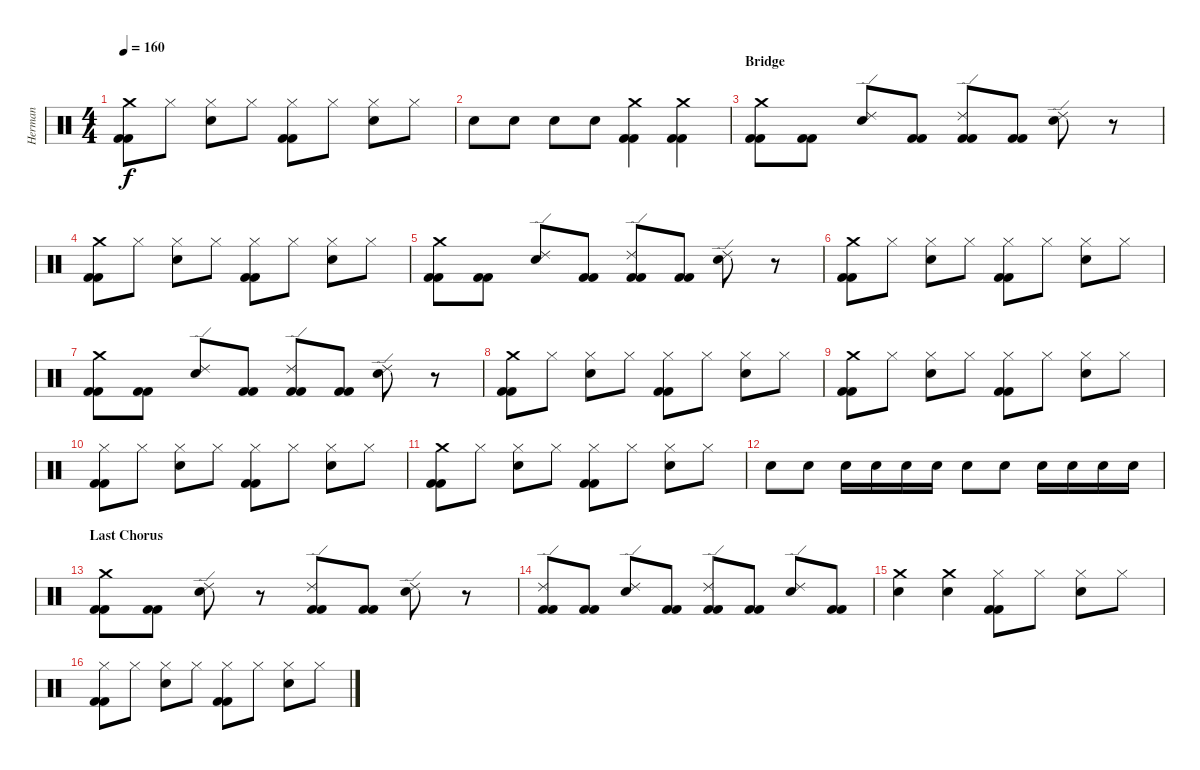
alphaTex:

\track ("Herman" "Herman") {instrument percussion}
\staff {score}
\articulation defaults
\ts (4 4)
\tempo 160
\clef neutral
\ks c
("Crash medium (hit)" "Kick (hit) 2" "Kick (hit) 2").8{dy f} "Hi-Hat (closed)".8 ("Electric Snare (hit)" "Hi-Hat (closed)").8 "Hi-Hat (closed)".8 ("Hi-Hat (closed)" "Kick (hit) 2" "Kick (hit) 2").8 "Hi-Hat (closed)".8 ("Electric Snare (hit)" "Hi-Hat (closed)").8 "Hi-Hat (closed)".8 |
"Electric Snare (hit)".8 "Electric Snare (hit)".8 "Electric Snare (hit)".8 "Electric Snare (hit)".8 ("Kick (hit) 2" "Kick (hit) 2" "Crash medium (hit)").4 ("Crash medium (hit)" "Kick (hit) 2" "Kick (hit) 2").4 |
\section ("" "Bridge")
("Crash medium (hit)" "Kick (hit) 2" "Kick (hit) 2").8 ("Kick (hit) 2" "Kick (hit) 2").8 ("Ride (edge) 2" "Electric Snare (hit)").8 ("Kick (hit) 2" "Kick (hit) 2").8 ("Ride (edge) 2" "Kick (hit) 2" "Kick (hit) 2").8 ("Kick (hit) 2" "Kick (hit) 2").8 ("Ride (edge) 2" "Electric Snare (hit)").8 r.8 |
("Kick (hit) 2" "Kick (hit) 2" "Crash medium (hit)").8 "Hi-Hat (closed)".8 ("Hi-Hat (closed)" "Electric Snare (hit)").8 "Hi-Hat (closed)".8 ("Kick (hit) 2" "Kick (hit) 2" "Hi-Hat (closed)").8 "Hi-Hat (closed)".8 ("Hi-Hat (closed)" "Electric Snare (hit)").8 "Hi-Hat (closed)".8 |
("Crash medium (hit)" "Kick (hit) 2" "Kick (hit) 2").8 ("Kick (hit) 2" "Kick (hit) 2").8 ("Ride (edge) 2" "Electric Snare (hit)").8 ("Kick (hit) 2" "Kick (hit) 2").8 ("Ride (edge) 2" "Kick (hit) 2" "Kick (hit) 2").8 ("Kick (hit) 2" "Kick (hit) 2").8 ("Ride (edge) 2" "Electric Snare (hit)").8 r.8 |
("Kick (hit) 2" "Kick (hit) 2" "Crash medium (hit)").8 "Hi-Hat (closed)".8 ("Hi-Hat (closed)" "Electric Snare (hit)").8 "Hi-Hat (closed)".8 ("Kick (hit) 2" "Kick (hit) 2" "Hi-Hat (closed)").8 "Hi-Hat (closed)".8 ("Hi-Hat (closed)" "Electric Snare (hit)").8 "Hi-Hat (closed)".8 |
("Crash medium (hit)" "Kick (hit) 2" "Kick (hit) 2").8 ("Kick (hit) 2" "Kick (hit) 2").8 ("Ride (edge) 2" "Electric Snare (hit)").8 ("Kick (hit) 2" "Kick (hit) 2").8 ("Ride (edge) 2" "Kick (hit) 2" "Kick (hit) 2").8 ("Kick (hit) 2" "Kick (hit) 2").8 ("Ride (edge) 2" "Electric Snare (hit)").8 r.8 |
("Kick (hit) 2" "Kick (hit) 2" "Crash medium (hit)").8 "Hi-Hat (closed)".8 ("Hi-Hat (closed)" "Electric Snare (hit)").8 "Hi-Hat (closed)".8 ("Kick (hit) 2" "Kick (hit) 2" "Hi-Hat (closed)").8 "Hi-Hat (closed)".8 ("Hi-Hat (closed)" "Electric Snare (hit)").8 "Hi-Hat (closed)".8 |
("Crash medium (hit)" "Kick (hit) 2" "Kick (hit) 2").8 "Hi-Hat (closed)".8 ("Electric Snare (hit)" "Hi-Hat (closed)").8 "Hi-Hat (closed)".8 ("Hi-Hat (closed)" "Kick (hit) 2" "Kick (hit) 2").8 "Hi-Hat (closed)".8 ("Electric Snare (hit)" "Hi-Hat (closed)").8 "Hi-Hat (closed)".8 |
("Hi-Hat (closed)" "Kick (hit) 2" "Kick (hit) 2").8 "Hi-Hat (closed)".8 ("Electric Snare (hit)" "Hi-Hat (closed)").8 "Hi-Hat (closed)".8 ("Hi-Hat (closed)" "Kick (hit) 2" "Kick (hit) 2").8 "Hi-Hat (closed)".8 ("Electric Snare (hit)" "Hi-Hat (closed)").8 "Hi-Hat (closed)".8 |
("Crash medium (hit)" "Kick (hit) 2" "Kick (hit) 2").8 "Hi-Hat (closed)".8 ("Electric Snare (hit)" "Hi-Hat (closed)").8 "Hi-Hat (closed)".8 ("Hi-Hat (closed)" "Kick (hit) 2" "Kick (hit) 2").8 "Hi-Hat (closed)".8 ("Electric Snare (hit)" "Hi-Hat (closed)").8 "Hi-Hat (closed)".8 |
"Electric Snare (hit)".8 "Electric Snare (hit)".8 "Electric Snare (hit)".16 "Electric Snare (hit)".16 "Electric Snare (hit)".16 "Electric Snare (hit)".16 "Electric Snare (hit)".8 "Electric Snare (hit)".8 "Electric Snare (hit)".16 "Electric Snare (hit)".16 "Electric Snare (hit)".16 "Electric Snare (hit)".16 |
\section ("" "Last Chorus")
("Crash medium (hit)" "Kick (hit) 2" "Kick (hit) 2").8 ("Kick (hit) 2" "Kick (hit) 2").8 ("Electric Snare (hit)" "Ride (edge) 2").8 r.8 ("Ride (edge) 2" "Kick (hit) 2" "Kick (hit) 2").8 ("Kick (hit) 2" "Kick (hit) 2").8 ("Electric Snare (hit)" "Ride (edge) 2").8 r.8 |
("Kick (hit) 2" "Kick (hit) 2" "Ride (edge) 2").8 ("Kick (hit) 2" "Kick (hit) 2").8 ("Electric Snare (hit)" "Ride (edge) 2").8 ("Kick (hit) 2" "Kick (hit) 2").8 ("Kick (hit) 2" "Kick (hit) 2" "Ride (edge) 2").8 ("Kick (hit) 2" "Kick (hit) 2").8 ("Electric Snare (hit)" "Ride (edge) 2").8 ("Kick (hit) 2" "Kick (hit) 2").8 |
("Crash medium (hit)" "Electric Snare (hit)").4 ("Crash medium (hit)" "Electric Snare (hit)").4 ("Hi-Hat (closed)" "Kick (hit) 2" "Kick (hit) 2").8 "Hi-Hat (closed)".8 ("Electric Snare (hit)" "Hi-Hat (closed)").8 "Hi-Hat (closed)".8 |
("Kick (hit) 2" "Kick (hit) 2" "Hi-Hat (closed)").8 "Hi-Hat (closed)".8 ("Hi-Hat (closed)" "Electric Snare (hit)").8 "Hi-Hat (closed)".8 ("Hi-Hat (closed)" "Kick (hit) 2" "Kick (hit) 2").8 "Hi-Hat (closed)".8 ("Electric Snare (hit)" "Hi-Hat (closed)").8 "Hi-Hat (closed)".8
